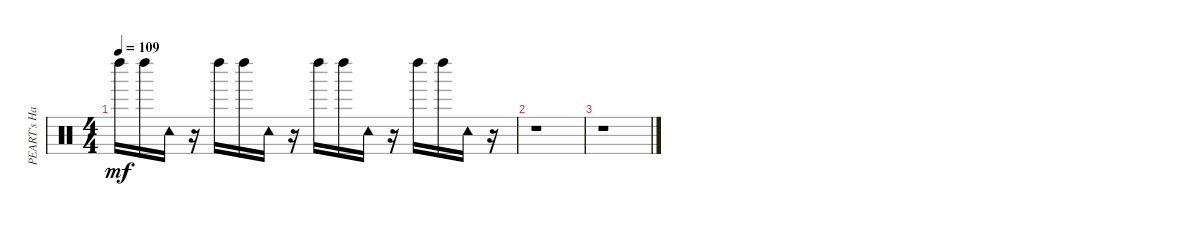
\track ("PEART's Hand Shaker " "PEART's Ha") {instrument percussion}
\staff {score}
\articulation defaults
\ts (4 4)
\tempo 109
\clef neutral
\ks c "Left Maraca (hit)".16{dy mf} "Left Maraca (hit)".16 "Tambourine (hit)".16
r.16 "Left Maraca (hit)".16 "Left Maraca (hit)".16 "Tambourine (hit)".16 r.16 "Left Maraca (hit)".16 "Left Maraca (hit)".16 "Tambourine (hit)".16 r.16 "Left Maraca (hit)".16 "Left Maraca (hit)".16 "Tambourine (hit)".16 r.16 |
r.1 |
r.1
